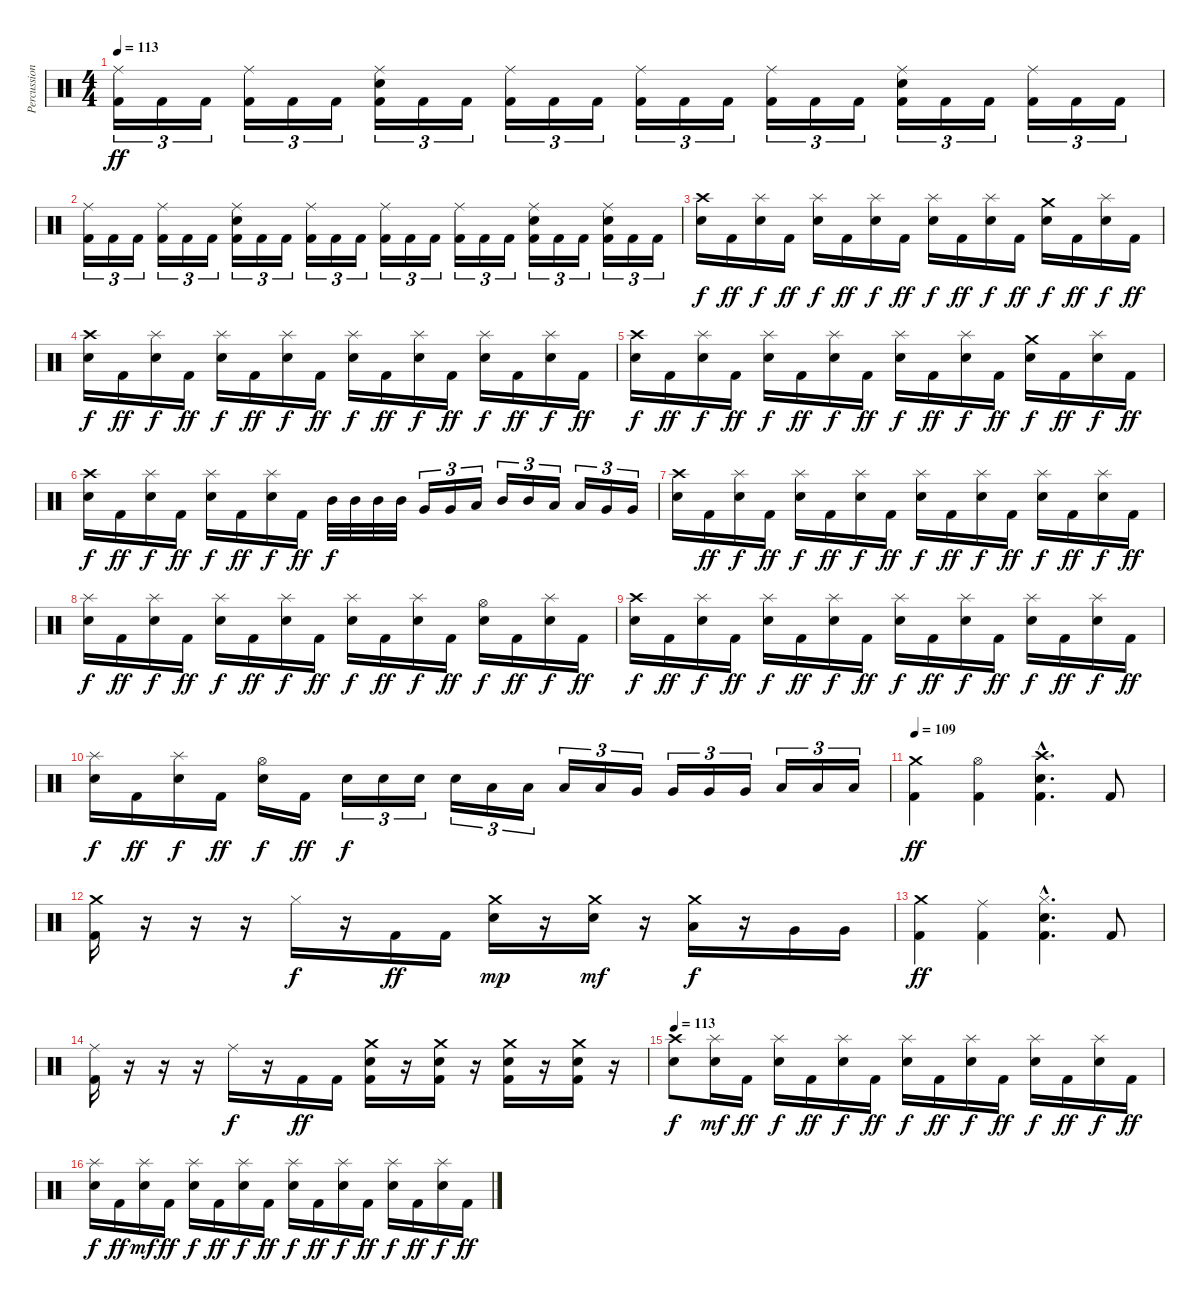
\track ("Percussion" "Percussion") {instrument percussion}
\staff {score}
\articulation defaults
\ts (4 4)
\tempo 113
\clef neutral
\ks c
("Ride (middle)" "Kick (hit) 2").16{tu (3 2) dy ff} "Kick (hit) 2".16{tu (3 2)} "Kick (hit) 2".16{tu (3 2)} ("Ride (middle)" "Kick (hit) 2").16{tu (3 2)} "Kick (hit) 2".16{tu (3 2)} "Kick (hit) 2".16{tu (3 2)} ("Ride (middle)" "Electric Snare (hit)" "Kick (hit) 2").16{tu (3 2)} "Kick (hit) 2".16{tu (3 2)} "Kick (hit) 2".16{tu (3 2)} ("Ride (middle)" "Kick (hit) 2").16{tu (3 2)} "Kick (hit) 2".16{tu (3 2)} "Kick (hit) 2".16{tu (3 2)} ("Ride (middle)" "Kick (hit) 2").16{tu (3 2)} "Kick (hit) 2".16{tu (3 2)} "Kick (hit) 2".16{tu (3 2)} ("Ride (middle)" "Kick (hit) 2").16{tu (3 2)} "Kick (hit) 2".16{tu (3 2)} "Kick (hit) 2".16{tu (3 2)} ("Ride (middle)" "Electric Snare (hit)" "Kick (hit) 2").16{tu (3 2)} "Kick (hit) 2".16{tu (3 2)} "Kick (hit) 2".16{tu (3 2)} ("Ride (middle)" "Kick (hit) 2").16{tu (3 2)} "Kick (hit) 2".16{tu (3 2)} "Kick (hit) 2".16{tu (3 2)} |
("Ride (middle)" "Kick (hit) 2").16{tu (3 2)} "Kick (hit) 2".16{tu (3 2)} "Kick (hit) 2".16{tu (3 2)} ("Ride (middle)" "Kick (hit) 2").16{tu (3 2)} "Kick (hit) 2".16{tu (3 2)} "Kick (hit) 2".16{tu (3 2)} ("Ride (middle)" "Electric Snare (hit)" "Kick (hit) 2").16{tu (3 2)} "Kick (hit) 2".16{tu (3 2)} "Kick (hit) 2".16{tu (3 2)} ("Ride (middle)" "Kick (hit) 2").16{tu (3 2)} "Kick (hit) 2".16{tu (3 2)} "Kick (hit) 2".16{tu (3 2)} ("Ride (middle)" "Kick (hit) 2").16{tu (3 2)} "Kick (hit) 2".16{tu (3 2)} "Kick (hit) 2".16{tu (3 2)} ("Ride (middle)" "Kick (hit) 2").16{tu (3 2)} "Kick (hit) 2".16{tu (3 2)} "Kick (hit) 2".16{tu (3 2)} ("Ride (middle)" "Electric Snare (hit)" "Kick (hit) 2").16{tu (3 2)} "Kick (hit) 2".16{tu (3 2)} "Kick (hit) 2".16{tu (3 2)} ("Ride (middle)" "Electric Snare (hit)" "Kick (hit) 2").16{tu (3 2)} "Kick (hit) 2".16{tu (3 2)} "Kick (hit) 2".16{tu (3 2)} |
("Crash high (hit)" "Electric Snare (hit)").16{dy f} "Kick (hit) 2".16{dy ff} ("Splash (hit)" "Electric Snare (hit)").16{dy f} "Kick (hit) 2".16{dy ff} ("Splash (hit)" "Electric Snare (hit)").16{dy f} "Kick (hit) 2".16{dy ff} ("Splash (hit)" "Electric Snare (hit)").16{dy f} "Kick (hit) 2".16{dy ff} ("Splash (hit)" "Electric Snare (hit)").16{dy f} "Kick (hit) 2".16{dy ff} ("Splash (hit)" "Electric Snare (hit)").16{dy f} "Kick (hit) 2".16{dy ff} ("Crash medium (hit)" "Electric Snare (hit)").16{dy f} "Kick (hit) 2".16{dy ff} ("Splash (hit)" "Electric Snare (hit)").16{dy f} "Kick (hit) 2".16{dy ff} |
("Crash high (hit)" "Electric Snare (hit)").16{dy f} "Kick (hit) 2".16{dy ff} ("Splash (hit)" "Electric Snare (hit)").16{dy f} "Kick (hit) 2".16{dy ff} ("Splash (hit)" "Electric Snare (hit)").16{dy f} "Kick (hit) 2".16{dy ff} ("Splash (hit)" "Electric Snare (hit)").16{dy f} "Kick (hit) 2".16{dy ff} ("Splash (hit)" "Electric Snare (hit)").16{dy f} "Kick (hit) 2".16{dy ff} ("Splash (hit)" "Electric Snare (hit)").16{dy f} "Kick (hit) 2".16{dy ff} ("Splash (hit)" "Electric Snare (hit)").16{dy f} "Kick (hit) 2".16{dy ff} ("Splash (hit)" "Electric Snare (hit)").16{dy f} "Kick (hit) 2".16{dy ff} |
("Crash high (hit)" "Electric Snare (hit)").16{dy f} "Kick (hit) 2".16{dy ff} ("Splash (hit)" "Electric Snare (hit)").16{dy f} "Kick (hit) 2".16{dy ff} ("Splash (hit)" "Electric Snare (hit)").16{dy f} "Kick (hit) 2".16{dy ff} ("Splash (hit)" "Electric Snare (hit)").16{dy f} "Kick (hit) 2".16{dy ff} ("Splash (hit)" "Electric Snare (hit)").16{dy f} "Kick (hit) 2".16{dy ff} ("Splash (hit)" "Electric Snare (hit)").16{dy f} "Kick (hit) 2".16{dy ff} ("Crash medium (hit)" "Electric Snare (hit)").16{dy f} "Kick (hit) 2".16{dy ff} ("Splash (hit)" "Electric Snare (hit)").16{dy f} "Kick (hit) 2".16{dy ff} |
("Crash high (hit)" "Electric Snare (hit)").16{dy f} "Kick (hit) 2".16{dy ff} ("Splash (hit)" "Electric Snare (hit)").16{dy f} "Kick (hit) 2".16{dy ff} ("Splash (hit)" "Electric Snare (hit)").16{dy f} "Kick (hit) 2".16{dy ff} ("Splash (hit)" "Electric Snare (hit)").16{dy f} "Kick (hit) 2".16{dy ff} "Mid Tom (hit)".32{dy f} "Mid Tom (hit)".32 "Mid Tom (hit)".32 "Mid Tom (hit)".32 "Very Low Tom (hit)".16{tu (3 2)} "Very Low Tom (hit)".16{tu (3 2)} "Low Tom (hit)".16{tu (3 2)} "Mid Tom (hit)".16{tu (3 2)} "Mid Tom (hit)".16{tu (3 2)} "Low Tom (hit)".16{tu (3 2)} "Low Tom (hit)".16{tu (3 2)} "Very Low Tom (hit)".16{tu (3 2)} "Very Low Tom (hit)".16{tu (3 2)} |
("Crash high (hit)" "Electric Snare (hit)").16 "Kick (hit) 2".16{dy ff} ("Splash (hit)" "Electric Snare (hit)").16{dy f} "Kick (hit) 2".16{dy ff} ("Splash (hit)" "Electric Snare (hit)").16{dy f} "Kick (hit) 2".16{dy ff} ("Splash (hit)" "Electric Snare (hit)").16{dy f} "Kick (hit) 2".16{dy ff} ("Splash (hit)" "Electric Snare (hit)").16{dy f} "Kick (hit) 2".16{dy ff} ("Splash (hit)" "Electric Snare (hit)").16{dy f} "Kick (hit) 2".16{dy ff} ("Splash (hit)" "Electric Snare (hit)").16{dy f} "Kick (hit) 2".16{dy ff} ("Splash (hit)" "Electric Snare (hit)").16{dy f} "Kick (hit) 2".16{dy ff} |
("Splash (hit)" "Electric Snare (hit)").16{dy f} "Kick (hit) 2".16{dy ff} ("Splash (hit)" "Electric Snare (hit)").16{dy f} "Kick (hit) 2".16{dy ff} ("Splash (hit)" "Electric Snare (hit)").16{dy f} "Kick (hit) 2".16{dy ff} ("Splash (hit)" "Electric Snare (hit)").16{dy f} "Kick (hit) 2".16{dy ff} ("Splash (hit)" "Electric Snare (hit)").16{dy f} "Kick (hit) 2".16{dy ff} ("Splash (hit)" "Electric Snare (hit)").16{dy f} "Kick (hit) 2".16{dy ff} ("Hi-Hat (open)" "Electric Snare (hit)").16{dy f} "Kick (hit) 2".16{dy ff} ("Splash (hit)" "Electric Snare (hit)").16{dy f} "Kick (hit) 2".16{dy ff} |
("Crash high (hit)" "Electric Snare (hit)").16{dy f} "Kick (hit) 2".16{dy ff} ("Splash (hit)" "Electric Snare (hit)").16{dy f} "Kick (hit) 2".16{dy ff} ("Splash (hit)" "Electric Snare (hit)").16{dy f} "Kick (hit) 2".16{dy ff} ("Splash (hit)" "Electric Snare (hit)").16{dy f} "Kick (hit) 2".16{dy ff} ("Splash (hit)" "Electric Snare (hit)").16{dy f} "Kick (hit) 2".16{dy ff} ("Splash (hit)" "Electric Snare (hit)").16{dy f} "Kick (hit) 2".16{dy ff} ("Splash (hit)" "Electric Snare (hit)").16{dy f} "Kick (hit) 2".16{dy ff} ("Splash (hit)" "Electric Snare (hit)").16{dy f} "Kick (hit) 2".16{dy ff} |
("Splash (hit)" "Electric Snare (hit)").16{dy f} "Kick (hit) 2".16{dy ff} ("Splash (hit)" "Electric Snare (hit)").16{dy f} "Kick (hit) 2".16{dy ff} ("Hi-Hat (open)" "Electric Snare (hit)").16{dy f} "Kick (hit) 2".16{dy ff} "Electric Snare (hit)".16{tu (3 2) dy f} "Electric Snare (hit)".16{tu (3 2)} "Electric Snare (hit)".16{tu (3 2)} "Electric Snare (hit)".16{tu (3 2)} "Low Tom (hit)".16{tu (3 2)} "Low Tom (hit)".16{tu (3 2)} "Low Tom (hit)".16{tu (3 2)} "Low Tom (hit)".16{tu (3 2)} "Very Low Tom (hit)".16{tu (3 2)} "Very Low Tom (hit)".16{tu (3 2)} "Very Low Tom (hit)".16{tu (3 2)} "Very Low Tom (hit)".16{tu (3 2)} "Low Floor Tom (hit)".16{tu (3 2)} "Low Floor Tom (hit)".16{tu (3 2)} "Low Floor Tom (hit)".16{tu (3 2)} |
\tempo 109
("Crash medium (hit)" "Kick (hit) 2").4{dy ff} ("Hi-Hat (open)" "Kick (hit) 2").4 ("Crash high (hit)"{hac} "Electric Snare (hit)"{hac} "Kick (hit) 2"{hac}).4{d} "Kick (hit) 2".8 |
("Crash medium (hit)" "Kick (hit) 2").16 r.16 r.16 r.16 "Hi-Hat (closed)".16{dy f} r.16 "Kick (hit) 2".16{dy ff} "Kick (hit) 2".16 ("Crash medium (hit)" "Electric Snare (hit)").16{dy mp} r.16 ("Crash medium (hit)" "Electric Snare (hit)").16{dy mf} r.16 ("Crash medium (hit)" "Low Tom (hit)").16{dy f} r.16 "Very Low Tom (hit)".16 "Very Low Tom (hit)".16 |
("Crash medium (hit)" "Kick (hit) 2").4{dy ff} ("Ride (middle)" "Kick (hit) 2").4 ("Hi-Hat (closed)"{hac} "Electric Snare (hit)"{hac} "Kick (hit) 2"{hac}).4{d} "Kick (hit) 2".8 |
("Ride (middle)" "Kick (hit) 2").16 r.16 r.16 r.16 "Ride (middle)".16{dy f} r.16 "Kick (hit) 2".16{dy ff} "Kick (hit) 2".16 ("Crash medium (hit)" "Electric Snare (hit)" "Kick (hit) 2").16 r.16 ("Crash medium (hit)" "Electric Snare (hit)" "Kick (hit) 2").16 r.16 ("Crash medium (hit)" "Electric Snare (hit)" "Kick (hit) 2").16 r.16 ("Crash medium (hit)" "Electric Snare (hit)" "Kick (hit) 2").16 r.16 |
\tempo 113
("Crash high (hit)" "Electric Snare (hit)").8{dy f} ("Splash (hit)" "Electric Snare (hit)").16{dy mf} "Kick (hit) 2".16{dy ff} ("Splash (hit)" "Electric Snare (hit)").16{dy f} "Kick (hit) 2".16{dy ff} ("Splash (hit)" "Electric Snare (hit)").16{dy f} "Kick (hit) 2".16{dy ff} ("Splash (hit)" "Electric Snare (hit)").16{dy f} "Kick (hit) 2".16{dy ff} ("Splash (hit)" "Electric Snare (hit)").16{dy f} "Kick (hit) 2".16{dy ff} ("Splash (hit)" "Electric Snare (hit)").16{dy f} "Kick (hit) 2".16{dy ff} ("Splash (hit)" "Electric Snare (hit)").16{dy f} "Kick (hit) 2".16{dy ff} |
("Splash (hit)" "Electric Snare (hit)").16{dy f} "Kick (hit) 2".16{dy ff} ("Splash (hit)" "Electric Snare (hit)").16{dy mf} "Kick (hit) 2".16{dy ff} ("Splash (hit)" "Electric Snare (hit)").16{dy f} "Kick (hit) 2".16{dy ff} ("Splash (hit)" "Electric Snare (hit)").16{dy f} "Kick (hit) 2".16{dy ff} ("Splash (hit)" "Electric Snare (hit)").16{dy f} "Kick (hit) 2".16{dy ff} ("Splash (hit)" "Electric Snare (hit)").16{dy f} "Kick (hit) 2".16{dy ff} ("Splash (hit)" "Electric Snare (hit)").16{dy f} "Kick (hit) 2".16{dy ff} ("Splash (hit)" "Electric Snare (hit)").16{dy f} "Kick (hit) 2".16{dy ff}
